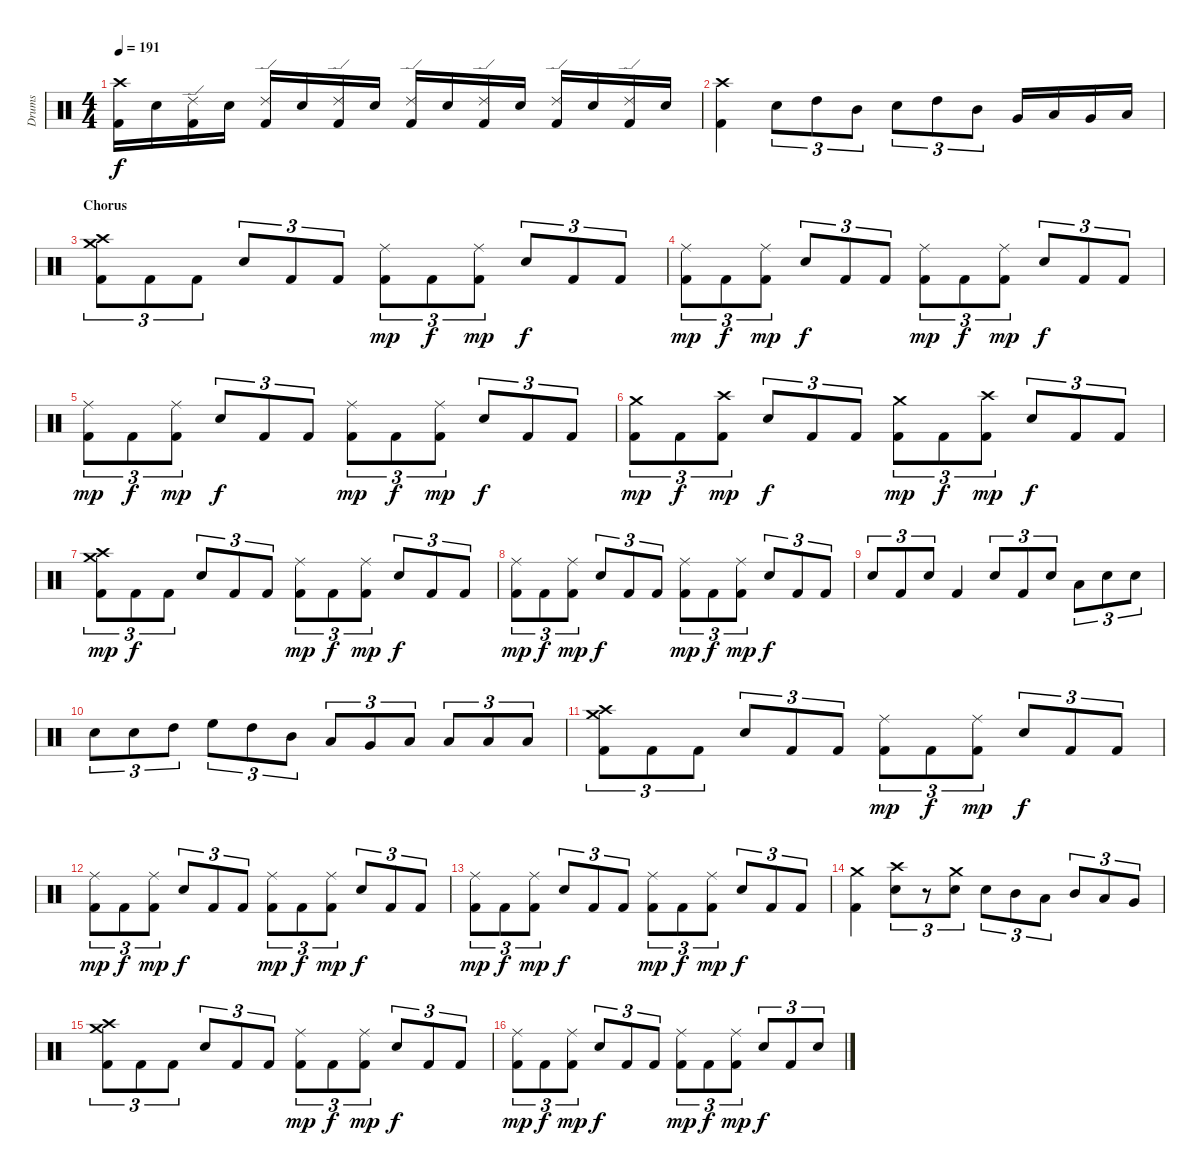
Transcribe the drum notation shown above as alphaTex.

\track ("Drums" "Drums") {instrument percussion}
\staff {score}
\articulation defaults
\ts (4 4)
\tempo 191
\clef neutral
\ks c
("Crash high (hit)" "Kick (hit) 2").16{dy f} "Electric Snare (hit)".16 ("Ride (edge) 2" "Kick (hit) 2").16 "Electric Snare (hit)".16 ("Ride (edge) 2" "Kick (hit) 2").16 "Electric Snare (hit)".16 ("Ride (edge) 2" "Kick (hit) 2").16 "Electric Snare (hit)".16 ("Ride (edge) 2" "Kick (hit) 2").16 "Electric Snare (hit)".16 ("Ride (edge) 2" "Kick (hit) 2").16 "Electric Snare (hit)".16 ("Ride (edge) 2" "Kick (hit) 2").16 "Electric Snare (hit)".16 ("Ride (edge) 2" "Kick (hit) 2").16 "Electric Snare (hit)".16 |
("Crash high (hit)" "Kick (hit) 2").4 "Electric Snare (hit)".8{tu (3 2)} "High Tom (hit)".8{tu (3 2)} "Mid Tom (hit)".8{tu (3 2)} "Electric Snare (hit)".8{tu (3 2)} "High Tom (hit)".8{tu (3 2)} "Mid Tom (hit)".8{tu (3 2)} "Very Low Tom (hit)".16 "Low Tom (hit)".16 "Very Low Tom (hit)".16 "Low Floor Tom (hit)".16 |
\section ("" "Chorus")
("Crash medium (hit)" "Crash high (hit)" "Kick (hit) 2").8{tu (3 2)} "Kick (hit) 2".8{tu (3 2)} "Kick (hit) 2".8{tu (3 2)} "Electric Snare (hit)".8{tu (3 2)} "Kick (hit) 2".8{tu (3 2)} "Kick (hit) 2".8{tu (3 2)} ("Ride (middle)" "Kick (hit) 2").8{tu (3 2) dy mp} "Kick (hit) 2".8{tu (3 2) dy f} ("Ride (middle)" "Kick (hit) 2").8{tu (3 2) dy mp} "Electric Snare (hit)".8{tu (3 2) dy f} "Kick (hit) 2".8{tu (3 2)} "Kick (hit) 2".8{tu (3 2)} |
("Ride (middle)" "Kick (hit) 2").8{tu (3 2) dy mp} "Kick (hit) 2".8{tu (3 2) dy f} ("Ride (middle)" "Kick (hit) 2").8{tu (3 2) dy mp} "Electric Snare (hit)".8{tu (3 2) dy f} "Kick (hit) 2".8{tu (3 2)} "Kick (hit) 2".8{tu (3 2)} ("Ride (middle)" "Kick (hit) 2").8{tu (3 2) dy mp} "Kick (hit) 2".8{tu (3 2) dy f} ("Ride (middle)" "Kick (hit) 2").8{tu (3 2) dy mp} "Electric Snare (hit)".8{tu (3 2) dy f} "Kick (hit) 2".8{tu (3 2)} "Kick (hit) 2".8{tu (3 2)} |
("Ride (middle)" "Kick (hit) 2").8{tu (3 2) dy mp} "Kick (hit) 2".8{tu (3 2) dy f} ("Ride (middle)" "Kick (hit) 2").8{tu (3 2) dy mp} "Electric Snare (hit)".8{tu (3 2) dy f} "Kick (hit) 2".8{tu (3 2)} "Kick (hit) 2".8{tu (3 2)} ("Ride (middle)" "Kick (hit) 2").8{tu (3 2) dy mp} "Kick (hit) 2".8{tu (3 2) dy f} ("Ride (middle)" "Kick (hit) 2").8{tu (3 2) dy mp} "Electric Snare (hit)".8{tu (3 2) dy f} "Kick (hit) 2".8{tu (3 2)} "Kick (hit) 2".8{tu (3 2)} |
("Crash medium (hit)" "Kick (hit) 2").8{tu (3 2) dy mp} "Kick (hit) 2".8{tu (3 2) dy f} ("Crash high (hit)" "Kick (hit) 2").8{tu (3 2) dy mp} "Electric Snare (hit)".8{tu (3 2) dy f} "Kick (hit) 2".8{tu (3 2)} "Kick (hit) 2".8{tu (3 2)} ("Crash medium (hit)" "Kick (hit) 2").8{tu (3 2) dy mp} "Kick (hit) 2".8{tu (3 2) dy f} ("Crash high (hit)" "Kick (hit) 2").8{tu (3 2) dy mp} "Electric Snare (hit)".8{tu (3 2) dy f} "Kick (hit) 2".8{tu (3 2)} "Kick (hit) 2".8{tu (3 2)} |
("Crash medium (hit)" "Crash high (hit)" "Kick (hit) 2").8{tu (3 2) dy mp} "Kick (hit) 2".8{tu (3 2) dy f} "Kick (hit) 2".8{tu (3 2)} "Electric Snare (hit)".8{tu (3 2)} "Kick (hit) 2".8{tu (3 2)} "Kick (hit) 2".8{tu (3 2)} ("Ride (middle)" "Kick (hit) 2").8{tu (3 2) dy mp} "Kick (hit) 2".8{tu (3 2) dy f} ("Ride (middle)" "Kick (hit) 2").8{tu (3 2) dy mp} "Electric Snare (hit)".8{tu (3 2) dy f} "Kick (hit) 2".8{tu (3 2)} "Kick (hit) 2".8{tu (3 2)} |
("Ride (middle)" "Kick (hit) 2").8{tu (3 2) dy mp} "Kick (hit) 2".8{tu (3 2) dy f} ("Ride (middle)" "Kick (hit) 2").8{tu (3 2) dy mp} "Electric Snare (hit)".8{tu (3 2) dy f} "Kick (hit) 2".8{tu (3 2)} "Kick (hit) 2".8{tu (3 2)} ("Ride (middle)" "Kick (hit) 2").8{tu (3 2) dy mp} "Kick (hit) 2".8{tu (3 2) dy f} ("Ride (middle)" "Kick (hit) 2").8{tu (3 2) dy mp} "Electric Snare (hit)".8{tu (3 2) dy f} "Kick (hit) 2".8{tu (3 2)} "Kick (hit) 2".8{tu (3 2)} |
"Electric Snare (hit)".8{tu (3 2)} "Kick (hit) 2".8{tu (3 2)} "Electric Snare (hit)".8{tu (3 2)} "Kick (hit) 2".4 "Electric Snare (hit)".8{tu (3 2)} "Kick (hit) 2".8{tu (3 2)} "Electric Snare (hit)".8{tu (3 2)} "Low Tom (hit)".8{tu (3 2)} "Electric Snare (hit)".8{tu (3 2)} "Electric Snare (hit)".8{tu (3 2)} |
"Electric Snare (hit)".8{tu (3 2)} "Electric Snare (hit)".8{tu (3 2)} "High Tom (hit)".8{tu (3 2)} "High Floor Tom (hit)".8{tu (3 2)} "High Tom (hit)".8{tu (3 2)} "Mid Tom (hit)".8{tu (3 2)} "Low Tom (hit)".8{tu (3 2)} "Very Low Tom (hit)".8{tu (3 2)} "Low Floor Tom (hit)".8{tu (3 2)} "Low Floor Tom (hit)".8{tu (3 2)} "Low Floor Tom (hit)".8{tu (3 2)} "Low Floor Tom (hit)".8{tu (3 2)} |
("Crash medium (hit)" "Crash high (hit)" "Kick (hit) 2").8{tu (3 2)} "Kick (hit) 2".8{tu (3 2)} "Kick (hit) 2".8{tu (3 2)} "Electric Snare (hit)".8{tu (3 2)} "Kick (hit) 2".8{tu (3 2)} "Kick (hit) 2".8{tu (3 2)} ("Ride (middle)" "Kick (hit) 2").8{tu (3 2) dy mp} "Kick (hit) 2".8{tu (3 2) dy f} ("Ride (middle)" "Kick (hit) 2").8{tu (3 2) dy mp} "Electric Snare (hit)".8{tu (3 2) dy f} "Kick (hit) 2".8{tu (3 2)} "Kick (hit) 2".8{tu (3 2)} |
("Ride (middle)" "Kick (hit) 2").8{tu (3 2) dy mp} "Kick (hit) 2".8{tu (3 2) dy f} ("Ride (middle)" "Kick (hit) 2").8{tu (3 2) dy mp} "Electric Snare (hit)".8{tu (3 2) dy f} "Kick (hit) 2".8{tu (3 2)} "Kick (hit) 2".8{tu (3 2)} ("Ride (middle)" "Kick (hit) 2").8{tu (3 2) dy mp} "Kick (hit) 2".8{tu (3 2) dy f} ("Ride (middle)" "Kick (hit) 2").8{tu (3 2) dy mp} "Electric Snare (hit)".8{tu (3 2) dy f} "Kick (hit) 2".8{tu (3 2)} "Kick (hit) 2".8{tu (3 2)} |
("Ride (middle)" "Kick (hit) 2").8{tu (3 2) dy mp} "Kick (hit) 2".8{tu (3 2) dy f} ("Ride (middle)" "Kick (hit) 2").8{tu (3 2) dy mp} "Electric Snare (hit)".8{tu (3 2) dy f} "Kick (hit) 2".8{tu (3 2)} "Kick (hit) 2".8{tu (3 2)} ("Ride (middle)" "Kick (hit) 2").8{tu (3 2) dy mp} "Kick (hit) 2".8{tu (3 2) dy f} ("Ride (middle)" "Kick (hit) 2").8{tu (3 2) dy mp} "Electric Snare (hit)".8{tu (3 2) dy f} "Kick (hit) 2".8{tu (3 2)} "Kick (hit) 2".8{tu (3 2)} |
("Crash medium (hit)" "Kick (hit) 2").4 ("Crash high (hit)" "Electric Snare (hit)").8{tu (3 2)} r.8{tu (3 2)} ("Crash medium (hit)" "Electric Snare (hit)").8{tu (3 2)} "Electric Snare (hit)".8{tu (3 2)} "Mid Tom (hit)".8{tu (3 2)} "Low Tom (hit)".8{tu (3 2)} "Mid Tom (hit)".8{tu (3 2)} "Low Tom (hit)".8{tu (3 2)} "Very Low Tom (hit)".8{tu (3 2)} |
("Crash medium (hit)" "Crash high (hit)" "Kick (hit) 2").8{tu (3 2)} "Kick (hit) 2".8{tu (3 2)} "Kick (hit) 2".8{tu (3 2)} "Electric Snare (hit)".8{tu (3 2)} "Kick (hit) 2".8{tu (3 2)} "Kick (hit) 2".8{tu (3 2)} ("Ride (middle)" "Kick (hit) 2").8{tu (3 2) dy mp} "Kick (hit) 2".8{tu (3 2) dy f} ("Ride (middle)" "Kick (hit) 2").8{tu (3 2) dy mp} "Electric Snare (hit)".8{tu (3 2) dy f} "Kick (hit) 2".8{tu (3 2)} "Kick (hit) 2".8{tu (3 2)} |
("Ride (middle)" "Kick (hit) 2").8{tu (3 2) dy mp} "Kick (hit) 2".8{tu (3 2) dy f} ("Ride (middle)" "Kick (hit) 2").8{tu (3 2) dy mp} "Electric Snare (hit)".8{tu (3 2) dy f} "Kick (hit) 2".8{tu (3 2)} "Kick (hit) 2".8{tu (3 2)} ("Ride (middle)" "Kick (hit) 2").8{tu (3 2) dy mp} "Kick (hit) 2".8{tu (3 2) dy f} ("Ride (middle)" "Kick (hit) 2").8{tu (3 2) dy mp} "Electric Snare (hit)".8{tu (3 2) dy f} "Kick (hit) 2".8{tu (3 2)} "Electric Snare (hit)".8{tu (3 2)}
